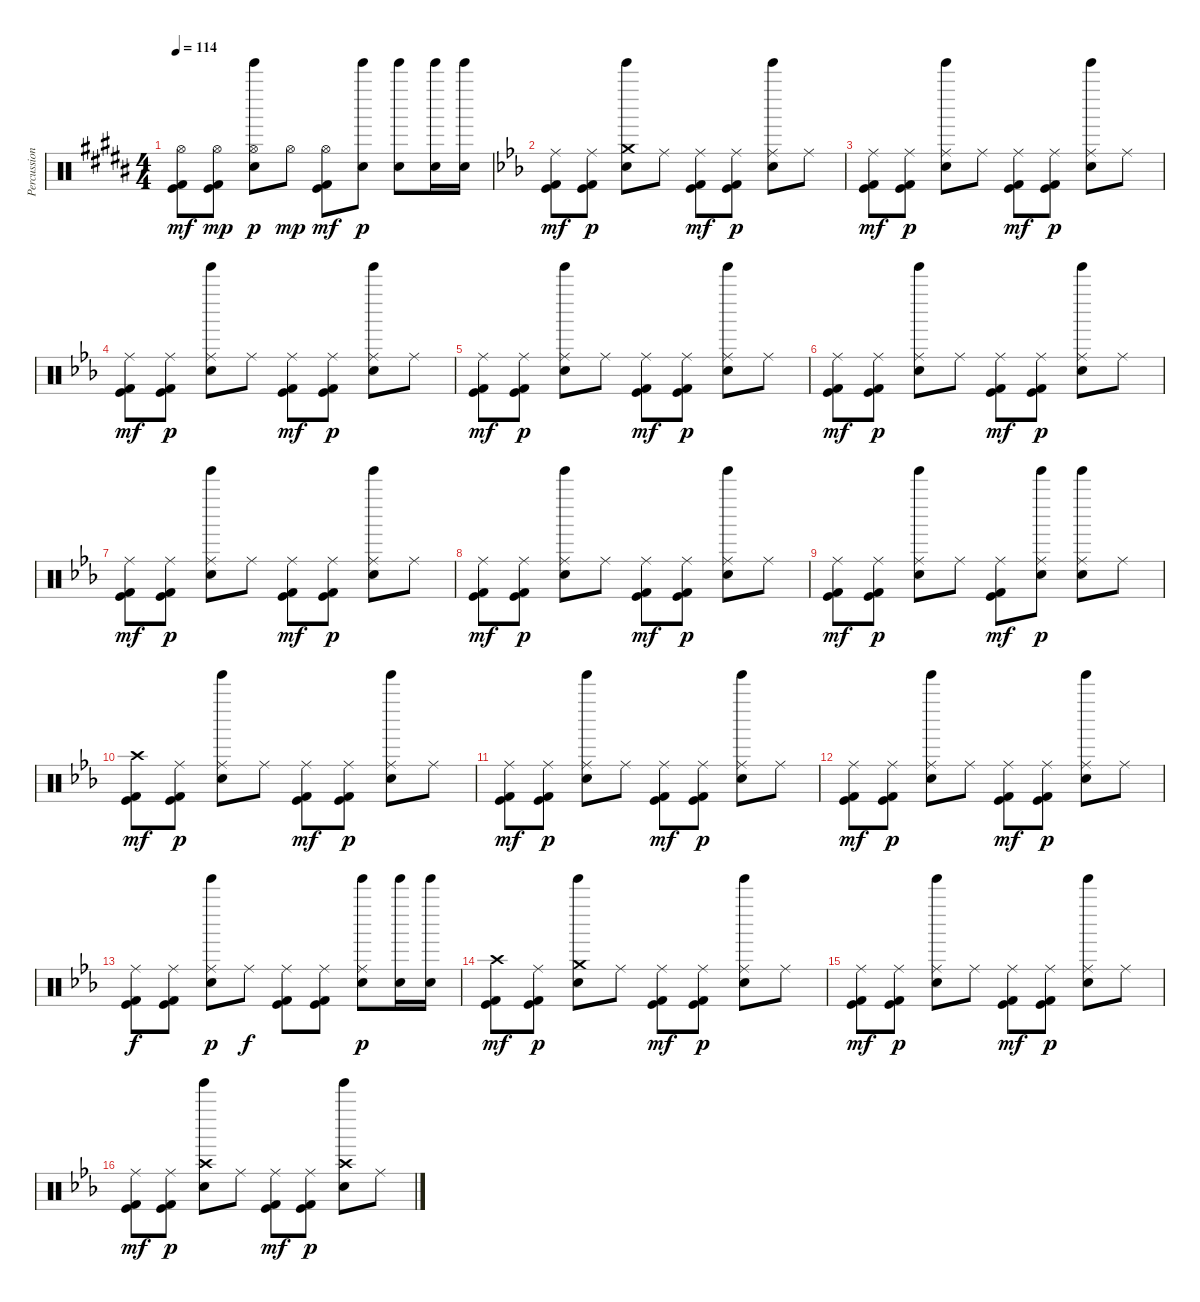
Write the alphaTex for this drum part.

\track ("Percussion" "Percussion") {instrument percussion}
\staff {score}
\articulation defaults
\ts (4 4)
\tempo 114
\clef neutral
\ks g#minor
("Hi-Hat (open)" "Kick (hit)" "Kick (hit) 2").8{dy mf} ("Hi-Hat (open)" "Kick (hit)" "Kick (hit) 2").8{dy mp} ("Hi-Hat (open)" "Electric Snare (hit)" "Tinkle Bell (hit)").8{dy p} "Hi-Hat (open)".8{dy mp} ("Hi-Hat (open)" "Kick (hit)" "Kick (hit) 2").8{dy mf} ("Electric Snare (hit)" "Tinkle Bell (hit)").8{dy p} ("Electric Snare (hit)" "Tinkle Bell (hit)").8 ("Electric Snare (hit)" "Tinkle Bell (hit)").16 ("Electric Snare (hit)" "Tinkle Bell (hit)").16 |
\ks cminor
("Ride (middle)" "Kick (hit)" "Kick (hit) 2").8{dy mf} ("Ride (middle)" "Kick (hit)" "Kick (hit) 2").8{dy p} ("Crash medium (hit)" "Electric Snare (hit)" "Tinkle Bell (hit)").8 "Ride (middle)".8 ("Ride (middle)" "Kick (hit)" "Kick (hit) 2").8{dy mf} ("Ride (middle)" "Kick (hit)" "Kick (hit) 2").8{dy p} ("Ride (middle)" "Electric Snare (hit)" "Tinkle Bell (hit)").8 "Ride (middle)".8 |
("Ride (middle)" "Kick (hit)" "Kick (hit) 2").8{dy mf} ("Ride (middle)" "Kick (hit)" "Kick (hit) 2").8{dy p} ("Ride (middle)" "Electric Snare (hit)" "Tinkle Bell (hit)").8 "Ride (middle)".8 ("Ride (middle)" "Kick (hit)" "Kick (hit) 2").8{dy mf} ("Ride (middle)" "Kick (hit)" "Kick (hit) 2").8{dy p} ("Ride (middle)" "Electric Snare (hit)" "Tinkle Bell (hit)").8 "Ride (middle)".8 |
("Ride (middle)" "Kick (hit)" "Kick (hit) 2").8{dy mf} ("Ride (middle)" "Kick (hit)" "Kick (hit) 2").8{dy p} ("Ride (middle)" "Electric Snare (hit)" "Tinkle Bell (hit)").8 "Ride (middle)".8 ("Ride (middle)" "Kick (hit)" "Kick (hit) 2").8{dy mf} ("Ride (middle)" "Kick (hit)" "Kick (hit) 2").8{dy p} ("Ride (middle)" "Electric Snare (hit)" "Tinkle Bell (hit)").8 "Ride (middle)".8 |
("Ride (middle)" "Kick (hit)" "Kick (hit) 2").8{dy mf} ("Ride (middle)" "Kick (hit)" "Kick (hit) 2").8{dy p} ("Ride (middle)" "Electric Snare (hit)" "Tinkle Bell (hit)").8 "Ride (middle)".8 ("Ride (middle)" "Kick (hit)" "Kick (hit) 2").8{dy mf} ("Ride (middle)" "Kick (hit)" "Kick (hit) 2").8{dy p} ("Ride (middle)" "Electric Snare (hit)" "Tinkle Bell (hit)").8 "Ride (middle)".8 |
("Ride (middle)" "Kick (hit)" "Kick (hit) 2").8{dy mf} ("Ride (middle)" "Kick (hit)" "Kick (hit) 2").8{dy p} ("Ride (middle)" "Electric Snare (hit)" "Tinkle Bell (hit)").8 "Ride (middle)".8 ("Ride (middle)" "Kick (hit)" "Kick (hit) 2").8{dy mf} ("Ride (middle)" "Kick (hit)" "Kick (hit) 2").8{dy p} ("Ride (middle)" "Electric Snare (hit)" "Tinkle Bell (hit)").8 "Ride (middle)".8 |
("Ride (middle)" "Kick (hit)" "Kick (hit) 2").8{dy mf} ("Ride (middle)" "Kick (hit)" "Kick (hit) 2").8{dy p} ("Ride (middle)" "Electric Snare (hit)" "Tinkle Bell (hit)").8 "Ride (middle)".8 ("Ride (middle)" "Kick (hit)" "Kick (hit) 2").8{dy mf} ("Ride (middle)" "Kick (hit)" "Kick (hit) 2").8{dy p} ("Ride (middle)" "Electric Snare (hit)" "Tinkle Bell (hit)").8 "Ride (middle)".8 |
("Ride (middle)" "Kick (hit)" "Kick (hit) 2").8{dy mf} ("Ride (middle)" "Kick (hit)" "Kick (hit) 2").8{dy p} ("Ride (middle)" "Electric Snare (hit)" "Tinkle Bell (hit)").8 "Ride (middle)".8 ("Ride (middle)" "Kick (hit)" "Kick (hit) 2").8{dy mf} ("Ride (middle)" "Kick (hit)" "Kick (hit) 2").8{dy p} ("Ride (middle)" "Electric Snare (hit)" "Tinkle Bell (hit)").8 "Ride (middle)".8 |
("Ride (middle)" "Kick (hit)" "Kick (hit) 2").8{dy mf} ("Ride (middle)" "Kick (hit)" "Kick (hit) 2").8{dy p} ("Ride (middle)" "Electric Snare (hit)" "Tinkle Bell (hit)").8 "Ride (middle)".8 ("Ride (middle)" "Kick (hit)" "Kick (hit) 2").8{dy mf} ("Ride (middle)" "Electric Snare (hit)" "Tinkle Bell (hit)").8{dy p} ("Ride (middle)" "Electric Snare (hit)" "Tinkle Bell (hit)").8 "Ride (middle)".8 |
("Crash high (hit)" "Kick (hit)" "Kick (hit) 2").8{dy mf} ("Ride (middle)" "Kick (hit)" "Kick (hit) 2").8{dy p} ("Ride (middle)" "Electric Snare (hit)" "Tinkle Bell (hit)").8 "Ride (middle)".8 ("Ride (middle)" "Kick (hit)" "Kick (hit) 2").8{dy mf} ("Ride (middle)" "Kick (hit)" "Kick (hit) 2").8{dy p} ("Ride (middle)" "Electric Snare (hit)" "Tinkle Bell (hit)").8 "Ride (middle)".8 |
("Ride (middle)" "Kick (hit)" "Kick (hit) 2").8{dy mf} ("Ride (middle)" "Kick (hit)" "Kick (hit) 2").8{dy p} ("Ride (middle)" "Electric Snare (hit)" "Tinkle Bell (hit)").8 "Ride (middle)".8 ("Ride (middle)" "Kick (hit)" "Kick (hit) 2").8{dy mf} ("Ride (middle)" "Kick (hit)" "Kick (hit) 2").8{dy p} ("Ride (middle)" "Electric Snare (hit)" "Tinkle Bell (hit)").8 "Ride (middle)".8 |
("Ride (middle)" "Kick (hit)" "Kick (hit) 2").8{dy mf} ("Ride (middle)" "Kick (hit)" "Kick (hit) 2").8{dy p} ("Ride (middle)" "Electric Snare (hit)" "Tinkle Bell (hit)").8 "Ride (middle)".8 ("Ride (middle)" "Kick (hit)" "Kick (hit) 2").8{dy mf} ("Ride (middle)" "Kick (hit)" "Kick (hit) 2").8{dy p} ("Ride (middle)" "Electric Snare (hit)" "Tinkle Bell (hit)").8 "Ride (middle)".8 |
("Ride (middle)" "Kick (hit)" "Kick (hit) 2").8{dy f} ("Ride (middle)" "Kick (hit)" "Kick (hit) 2").8 ("Ride (middle)" "Electric Snare (hit)" "Tinkle Bell (hit)").8{dy p} "Ride (middle)".8{dy f} ("Ride (middle)" "Kick (hit)" "Kick (hit) 2").8 ("Ride (middle)" "Kick (hit)" "Kick (hit) 2").8 ("Ride (middle)" "Electric Snare (hit)" "Tinkle Bell (hit)").8{dy p} ("Electric Snare (hit)" "Tinkle Bell (hit)").16 ("Electric Snare (hit)" "Tinkle Bell (hit)").16 |
("Crash high (hit)" "Kick (hit)" "Kick (hit) 2").8{dy mf} ("Ride (middle)" "Kick (hit)" "Kick (hit) 2").8{dy p} ("Crash medium (hit)" "Electric Snare (hit)" "Tinkle Bell (hit)").8 "Ride (middle)".8 ("Ride (middle)" "Kick (hit)" "Kick (hit) 2").8{dy mf} ("Ride (middle)" "Kick (hit)" "Kick (hit) 2").8{dy p} ("Ride (middle)" "Electric Snare (hit)" "Tinkle Bell (hit)").8 "Ride (middle)".8 |
("Ride (middle)" "Kick (hit)" "Kick (hit) 2").8{dy mf} ("Ride (middle)" "Kick (hit)" "Kick (hit) 2").8{dy p} ("Ride (middle)" "Electric Snare (hit)" "Tinkle Bell (hit)").8 "Ride (middle)".8 ("Ride (middle)" "Kick (hit)" "Kick (hit) 2").8{dy mf} ("Ride (middle)" "Kick (hit)" "Kick (hit) 2").8{dy p} ("Ride (middle)" "Electric Snare (hit)" "Tinkle Bell (hit)").8 "Ride (middle)".8 |
("Ride (middle)" "Kick (hit)" "Kick (hit) 2").8{dy mf} ("Ride (middle)" "Kick (hit)" "Kick (hit) 2").8{dy p} ("Crash high (hit)" "Electric Snare (hit)" "Tinkle Bell (hit)").8 "Ride (middle)".8 ("Ride (middle)" "Kick (hit)" "Kick (hit) 2").8{dy mf} ("Ride (middle)" "Kick (hit)" "Kick (hit) 2").8{dy p} ("Crash high (hit)" "Electric Snare (hit)" "Tinkle Bell (hit)").8 "Ride (middle)".8
